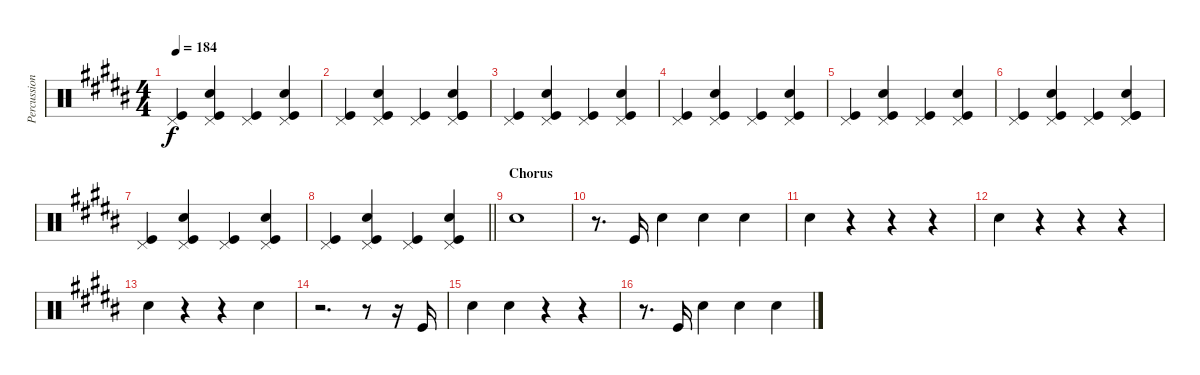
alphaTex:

\track ("Percussion" "Percussion") {instrument percussion}
\staff {score}
\articulation defaults
\ts (4 4)
\tempo 184
\clef neutral
\ks b
("Pedal Hi-Hat (hit)" "Kick (hit)").4{dy f} ("Kick (hit)" "Pedal Hi-Hat (hit)" "Snare (hit) 2").4 ("Kick (hit)" "Pedal Hi-Hat (hit)").4 ("Kick (hit)" "Pedal Hi-Hat (hit)" "Snare (hit) 2").4 |
("Kick (hit)" "Pedal Hi-Hat (hit)").4 ("Kick (hit)" "Pedal Hi-Hat (hit)" "Snare (hit) 2").4 ("Kick (hit)" "Pedal Hi-Hat (hit)").4 ("Kick (hit)" "Pedal Hi-Hat (hit)" "Kick (hit)" "Snare (hit) 2").4 |
("Kick (hit)" "Pedal Hi-Hat (hit)").4 ("Kick (hit)" "Pedal Hi-Hat (hit)" "Snare (hit) 2").4 ("Kick (hit)" "Pedal Hi-Hat (hit)").4 ("Kick (hit)" "Pedal Hi-Hat (hit)" "Snare (hit) 2").4 |
("Kick (hit)" "Pedal Hi-Hat (hit)").4 ("Kick (hit)" "Pedal Hi-Hat (hit)" "Snare (hit) 2").4 ("Kick (hit)" "Pedal Hi-Hat (hit)").4 ("Kick (hit)" "Pedal Hi-Hat (hit)" "Snare (hit) 2").4 |
("Pedal Hi-Hat (hit)" "Kick (hit)").4 ("Kick (hit)" "Pedal Hi-Hat (hit)" "Snare (hit) 2").4 ("Kick (hit)" "Pedal Hi-Hat (hit)").4 ("Kick (hit)" "Pedal Hi-Hat (hit)" "Snare (hit) 2").4 |
("Kick (hit)" "Pedal Hi-Hat (hit)").4 ("Kick (hit)" "Pedal Hi-Hat (hit)" "Snare (hit) 2").4 ("Kick (hit)" "Pedal Hi-Hat (hit)").4 ("Kick (hit)" "Pedal Hi-Hat (hit)" "Kick (hit)" "Snare (hit) 2").4 |
("Kick (hit)" "Pedal Hi-Hat (hit)").4 ("Kick (hit)" "Pedal Hi-Hat (hit)" "Snare (hit) 2").4 ("Kick (hit)" "Pedal Hi-Hat (hit)").4 ("Kick (hit)" "Pedal Hi-Hat (hit)" "Snare (hit) 2").4 |
\barLineRight lightlight
("Kick (hit)" "Pedal Hi-Hat (hit)").4 ("Kick (hit)" "Pedal Hi-Hat (hit)" "Snare (hit) 2").4 ("Kick (hit)" "Pedal Hi-Hat (hit)").4 ("Kick (hit)" "Pedal Hi-Hat (hit)" "Snare (hit) 2").4 |
\section ("" "Chorus")
"Snare (hit) 2".1 |
r.8{d} "Kick (hit)".16 "Snare (hit) 2".4 "Snare (hit) 2".4 "Snare (hit) 2".4 |
"Snare (hit) 2".4 r.4 r.4 r.4 |
"Snare (hit) 2".4 r.4 r.4 r.4 |
"Snare (hit) 2".4 r.4 r.4 "Snare (hit) 2".4 |
r.2{d} r.8 r.16 "Kick (hit)".16 |
"Snare (hit) 2".4 "Snare (hit) 2".4 r.4 r.4 |
r.8{d} "Kick (hit)".16 "Snare (hit) 2".4 "Snare (hit) 2".4 "Snare (hit) 2".4
